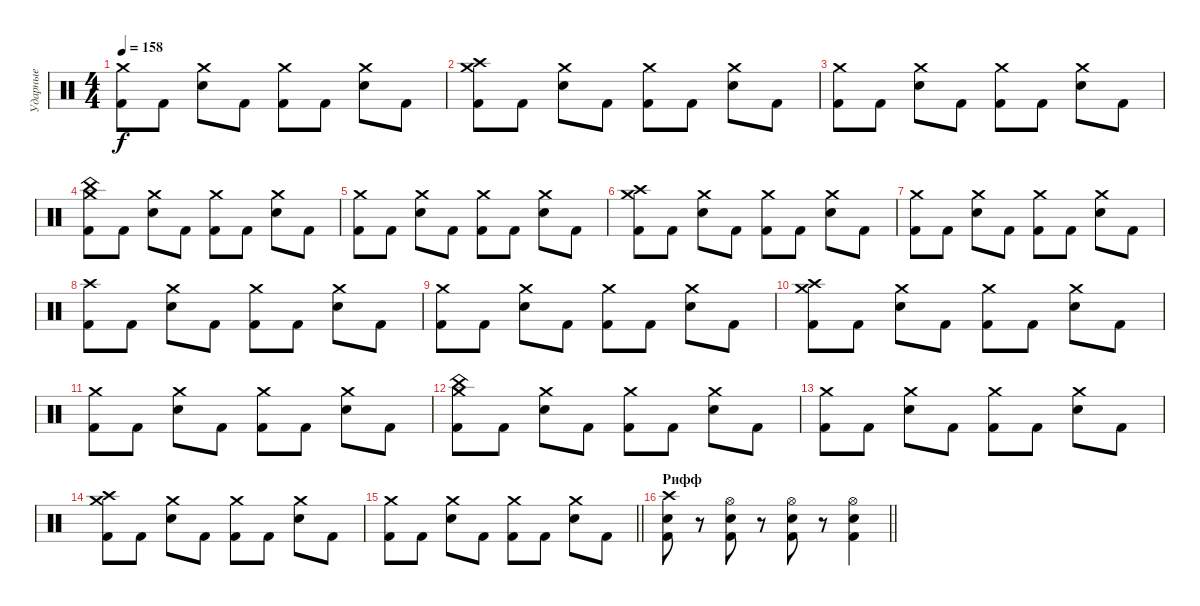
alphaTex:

\track ("Ударные" "Ударные") {instrument percussion}
\staff {score}
\articulation defaults
\ts (4 4)
\tempo 158
\clef neutral
\ks c
("Crash medium (hit)" "Kick (hit) 2").8{dy f} "Kick (hit) 2".8 ("Crash medium (hit)" "Electric Snare (hit)").8 "Kick (hit) 2".8 ("Crash medium (hit)" "Kick (hit) 2").8 "Kick (hit) 2".8 ("Crash medium (hit)" "Electric Snare (hit)").8 "Kick (hit) 2".8 |
("Crash medium (hit)" "Crash high (hit)" "Kick (hit) 2").8 "Kick (hit) 2".8 ("Crash medium (hit)" "Electric Snare (hit)").8 "Kick (hit) 2".8 ("Crash medium (hit)" "Kick (hit) 2").8 "Kick (hit) 2".8 ("Crash medium (hit)" "Electric Snare (hit)").8 "Kick (hit) 2".8 |
("Crash medium (hit)" "Kick (hit) 2").8 "Kick (hit) 2".8 ("Crash medium (hit)" "Electric Snare (hit)").8 "Kick (hit) 2".8 ("Crash medium (hit)" "Kick (hit) 2").8 "Kick (hit) 2".8 ("Crash medium (hit)" "Electric Snare (hit)").8 "Kick (hit) 2".8 |
("Crash medium (hit)" "China (hit)" "Kick (hit) 2").8 "Kick (hit) 2".8 ("Crash medium (hit)" "Electric Snare (hit)").8 "Kick (hit) 2".8 ("Crash medium (hit)" "Kick (hit) 2").8 "Kick (hit) 2".8 ("Crash medium (hit)" "Electric Snare (hit)").8 "Kick (hit) 2".8 |
("Crash medium (hit)" "Kick (hit) 2").8 "Kick (hit) 2".8 ("Crash medium (hit)" "Electric Snare (hit)").8 "Kick (hit) 2".8 ("Crash medium (hit)" "Kick (hit) 2").8 "Kick (hit) 2".8 ("Crash medium (hit)" "Electric Snare (hit)").8 "Kick (hit) 2".8 |
("Crash medium (hit)" "Crash high (hit)" "Kick (hit) 2").8 "Kick (hit) 2".8 ("Crash medium (hit)" "Electric Snare (hit)").8 "Kick (hit) 2".8 ("Crash medium (hit)" "Kick (hit) 2").8 "Kick (hit) 2".8 ("Crash medium (hit)" "Electric Snare (hit)").8 "Kick (hit) 2".8 |
("Crash medium (hit)" "Kick (hit) 2").8 "Kick (hit) 2".8 ("Crash medium (hit)" "Electric Snare (hit)").8 "Kick (hit) 2".8 ("Crash medium (hit)" "Kick (hit) 2").8 "Kick (hit) 2".8 ("Crash medium (hit)" "Electric Snare (hit)").8 "Kick (hit) 2".8 |
("Crash high (hit)" "Kick (hit) 2").8 "Kick (hit) 2".8 ("Crash medium (hit)" "Electric Snare (hit)").8 "Kick (hit) 2".8 ("Crash medium (hit)" "Kick (hit) 2").8 "Kick (hit) 2".8 ("Crash medium (hit)" "Electric Snare (hit)").8 "Kick (hit) 2".8 |
("Crash medium (hit)" "Kick (hit) 2").8 "Kick (hit) 2".8 ("Crash medium (hit)" "Electric Snare (hit)").8 "Kick (hit) 2".8 ("Crash medium (hit)" "Kick (hit) 2").8 "Kick (hit) 2".8 ("Crash medium (hit)" "Electric Snare (hit)").8 "Kick (hit) 2".8 |
("Crash medium (hit)" "Crash high (hit)" "Kick (hit) 2").8 "Kick (hit) 2".8 ("Crash medium (hit)" "Electric Snare (hit)").8 "Kick (hit) 2".8 ("Crash medium (hit)" "Kick (hit) 2").8 "Kick (hit) 2".8 ("Crash medium (hit)" "Electric Snare (hit)").8 "Kick (hit) 2".8 |
("Crash medium (hit)" "Kick (hit) 2").8 "Kick (hit) 2".8 ("Crash medium (hit)" "Electric Snare (hit)").8 "Kick (hit) 2".8 ("Crash medium (hit)" "Kick (hit) 2").8 "Kick (hit) 2".8 ("Crash medium (hit)" "Electric Snare (hit)").8 "Kick (hit) 2".8 |
("Crash medium (hit)" "China (hit)" "Kick (hit) 2").8 "Kick (hit) 2".8 ("Crash medium (hit)" "Electric Snare (hit)").8 "Kick (hit) 2".8 ("Crash medium (hit)" "Kick (hit) 2").8 "Kick (hit) 2".8 ("Crash medium (hit)" "Electric Snare (hit)").8 "Kick (hit) 2".8 |
("Crash medium (hit)" "Kick (hit) 2").8 "Kick (hit) 2".8 ("Crash medium (hit)" "Electric Snare (hit)").8 "Kick (hit) 2".8 ("Crash medium (hit)" "Kick (hit) 2").8 "Kick (hit) 2".8 ("Crash medium (hit)" "Electric Snare (hit)").8 "Kick (hit) 2".8 |
("Crash medium (hit)" "Crash high (hit)" "Kick (hit) 2").8 "Kick (hit) 2".8 ("Crash medium (hit)" "Electric Snare (hit)").8 "Kick (hit) 2".8 ("Crash medium (hit)" "Kick (hit) 2").8 "Kick (hit) 2".8 ("Crash medium (hit)" "Electric Snare (hit)").8 "Kick (hit) 2".8 |
\barLineRight lightlight
("Crash medium (hit)" "Kick (hit) 2").8 "Kick (hit) 2".8 ("Crash medium (hit)" "Electric Snare (hit)").8 "Kick (hit) 2".8 ("Crash medium (hit)" "Kick (hit) 2").8 "Kick (hit) 2".8 ("Crash medium (hit)" "Electric Snare (hit)").8 "Kick (hit) 2".8 |
\section ("" "Рифф")
\barLineRight lightlight
("Crash high (hit)" "Electric Snare (hit)" "Kick (hit) 2").8 r.8 ("Hi-Hat (open)" "Electric Snare (hit)" "Kick (hit) 2").8 r.8 ("Hi-Hat (open)" "Electric Snare (hit)" "Kick (hit) 2").8 r.8 ("Hi-Hat (open)" "Electric Snare (hit)" "Kick (hit) 2").4
